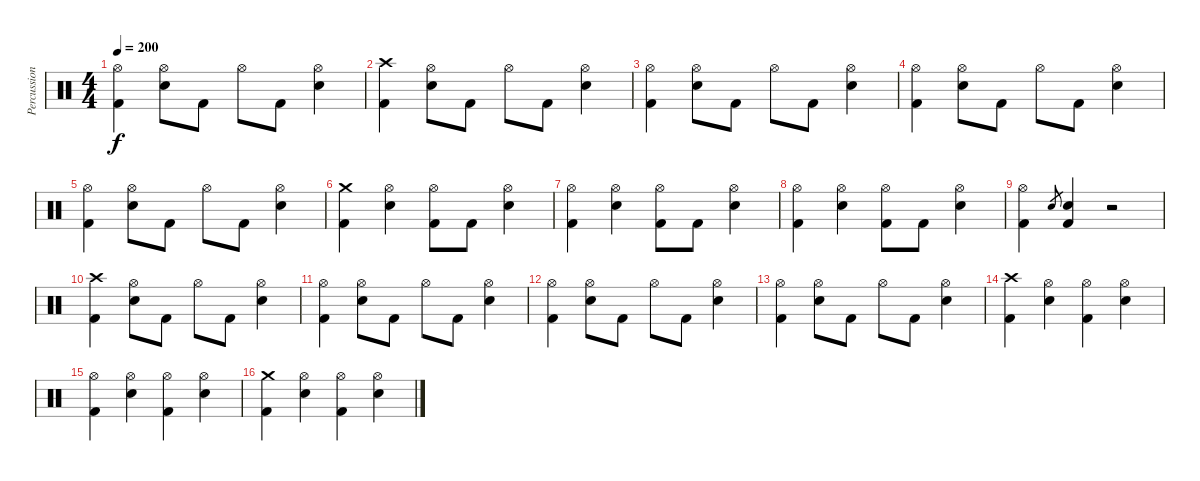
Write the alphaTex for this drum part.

\track ("Percussioni" "Percussion") {instrument percussion}
\staff {score}
\articulation defaults
\ts (4 4)
\tempo 200
\clef neutral
\ks c
("Hi-Hat (open)" "Kick (hit) 2").4{dy f} ("Hi-Hat (open)" "Electric Snare (hit)").8 "Kick (hit) 2".8 "Hi-Hat (open)".8 "Kick (hit) 2".8 ("Hi-Hat (open)" "Electric Snare (hit)").4 |
("Crash high (hit)" "Kick (hit) 2").4 ("Hi-Hat (open)" "Electric Snare (hit)").8 "Kick (hit) 2".8 "Hi-Hat (open)".8 "Kick (hit) 2".8 ("Hi-Hat (open)" "Electric Snare (hit)").4 |
("Hi-Hat (open)" "Kick (hit) 2").4 ("Hi-Hat (open)" "Electric Snare (hit)").8 "Kick (hit) 2".8 "Hi-Hat (open)".8 "Kick (hit) 2".8 ("Hi-Hat (open)" "Electric Snare (hit)").4 |
("Hi-Hat (open)" "Kick (hit) 2").4 ("Hi-Hat (open)" "Electric Snare (hit)").8 "Kick (hit) 2".8 "Hi-Hat (open)".8 "Kick (hit) 2".8 ("Hi-Hat (open)" "Electric Snare (hit)").4 |
("Hi-Hat (open)" "Kick (hit) 2").4 ("Hi-Hat (open)" "Electric Snare (hit)").8 "Kick (hit) 2".8 "Hi-Hat (open)".8 "Kick (hit) 2".8 ("Hi-Hat (open)" "Electric Snare (hit)").4 |
("Crash medium (hit)" "Kick (hit) 2").4 ("Hi-Hat (open)" "Electric Snare (hit)").4 ("Hi-Hat (open)" "Kick (hit) 2").8 "Kick (hit) 2".8 ("Hi-Hat (open)" "Electric Snare (hit)").4 |
("Hi-Hat (open)" "Kick (hit) 2").4 ("Hi-Hat (open)" "Electric Snare (hit)").4 ("Hi-Hat (open)" "Kick (hit) 2").8 "Kick (hit) 2".8 ("Hi-Hat (open)" "Electric Snare (hit)").4 |
("Hi-Hat (open)" "Kick (hit) 2").4 ("Hi-Hat (open)" "Electric Snare (hit)").4 ("Hi-Hat (open)" "Kick (hit) 2").8 "Kick (hit) 2".8 ("Hi-Hat (open)" "Electric Snare (hit)").4 |
("Hi-Hat (open)" "Kick (hit) 2").4 "Electric Snare (hit)".8{gr} ("Electric Snare (hit)" "Kick (hit) 2").4 r.2 |
("Crash high (hit)" "Kick (hit) 2").4 ("Hi-Hat (open)" "Electric Snare (hit)").8 "Kick (hit) 2".8 "Hi-Hat (open)".8 "Kick (hit) 2".8 ("Hi-Hat (open)" "Electric Snare (hit)").4 |
("Hi-Hat (open)" "Kick (hit) 2").4 ("Hi-Hat (open)" "Electric Snare (hit)").8 "Kick (hit) 2".8 "Hi-Hat (open)".8 "Kick (hit) 2".8 ("Hi-Hat (open)" "Electric Snare (hit)").4 |
("Hi-Hat (open)" "Kick (hit) 2").4 ("Hi-Hat (open)" "Electric Snare (hit)").8 "Kick (hit) 2".8 "Hi-Hat (open)".8 "Kick (hit) 2".8 ("Hi-Hat (open)" "Electric Snare (hit)").4 |
("Hi-Hat (open)" "Kick (hit) 2").4 ("Hi-Hat (open)" "Electric Snare (hit)").8 "Kick (hit) 2".8 "Hi-Hat (open)".8 "Kick (hit) 2".8 ("Hi-Hat (open)" "Electric Snare (hit)").4 |
("Crash high (hit)" "Kick (hit) 2").4 ("Hi-Hat (open)" "Electric Snare (hit)").4 ("Hi-Hat (open)" "Kick (hit) 2").4 ("Hi-Hat (open)" "Electric Snare (hit)").4 |
("Hi-Hat (open)" "Kick (hit) 2").4 ("Hi-Hat (open)" "Electric Snare (hit)").4 ("Hi-Hat (open)" "Kick (hit) 2").4 ("Hi-Hat (open)" "Electric Snare (hit)").4 |
("Crash medium (hit)" "Kick (hit) 2").4 ("Hi-Hat (open)" "Electric Snare (hit)").4 ("Hi-Hat (open)" "Kick (hit) 2").4 ("Hi-Hat (open)" "Electric Snare (hit)").4
